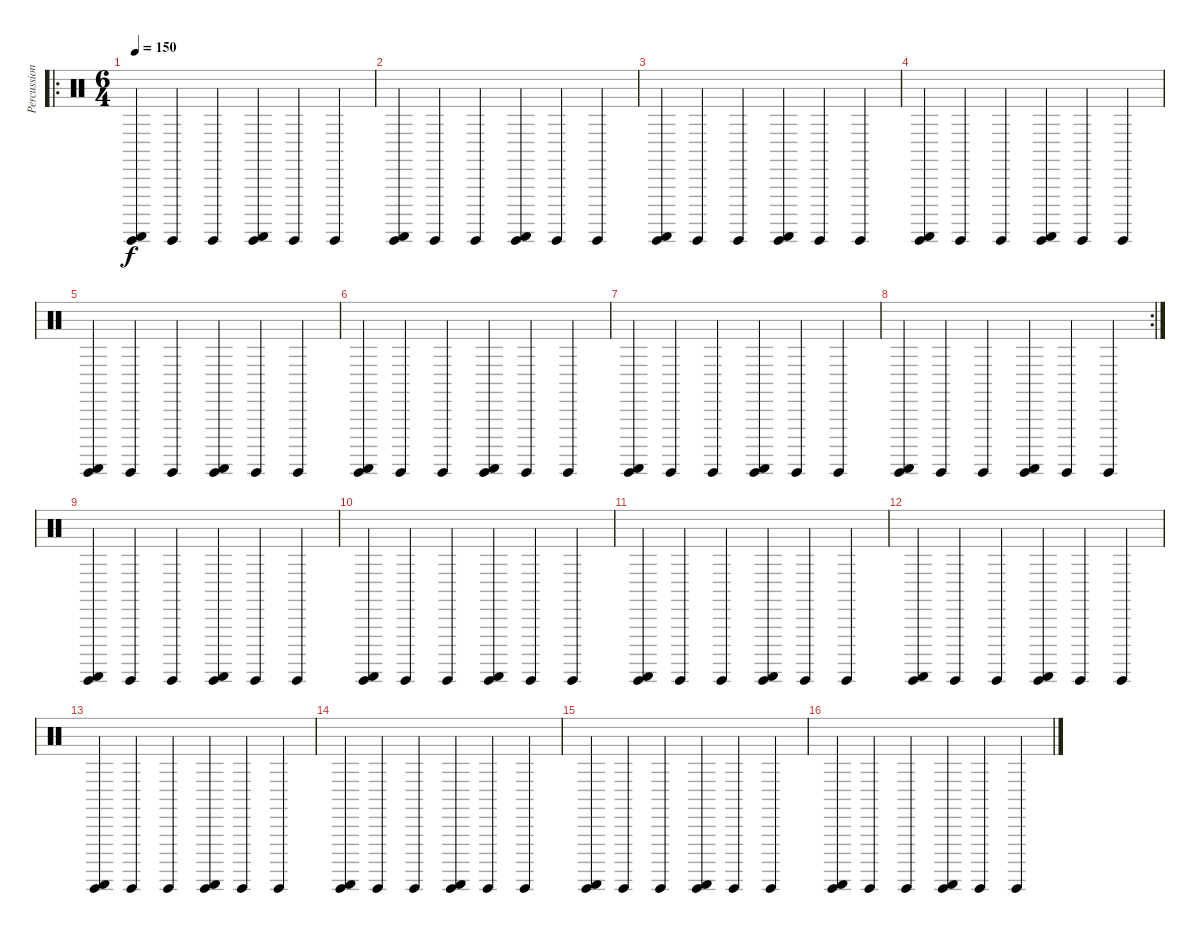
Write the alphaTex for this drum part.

\track ("Percussion" "Percussion") {instrument percussion}
\staff {score}
\articulation defaults
\ro
\ts (6 4)
\tempo 150
\clef neutral
\ks c
("Guiro (scrap-return)" "Guiro (hit)").4{dy f} "Guiro (hit)".4 "Guiro (hit)".4 ("Guiro (scrap-return)" "Guiro (hit)").4 "Guiro (hit)".4 "Guiro (hit)".4 |
("Guiro (scrap-return)" "Guiro (hit)").4 "Guiro (hit)".4 "Guiro (hit)".4 ("Guiro (scrap-return)" "Guiro (hit)").4 "Guiro (hit)".4 "Guiro (hit)".4 |
("Guiro (scrap-return)" "Guiro (hit)").4 "Guiro (hit)".4 "Guiro (hit)".4 ("Guiro (scrap-return)" "Guiro (hit)").4 "Guiro (hit)".4 "Guiro (hit)".4 |
("Guiro (scrap-return)" "Guiro (hit)").4 "Guiro (hit)".4 "Guiro (hit)".4 ("Guiro (scrap-return)" "Guiro (hit)").4 "Guiro (hit)".4 "Guiro (hit)".4 |
("Guiro (scrap-return)" "Guiro (hit)").4 "Guiro (hit)".4 "Guiro (hit)".4 ("Guiro (scrap-return)" "Guiro (hit)").4 "Guiro (hit)".4 "Guiro (hit)".4 |
("Guiro (scrap-return)" "Guiro (hit)").4 "Guiro (hit)".4 "Guiro (hit)".4 ("Guiro (scrap-return)" "Guiro (hit)").4 "Guiro (hit)".4 "Guiro (hit)".4 |
("Guiro (scrap-return)" "Guiro (hit)").4 "Guiro (hit)".4 "Guiro (hit)".4 ("Guiro (scrap-return)" "Guiro (hit)").4 "Guiro (hit)".4 "Guiro (hit)".4 |
\rc 2
("Guiro (scrap-return)" "Guiro (hit)").4 "Guiro (hit)".4 "Guiro (hit)".4 ("Guiro (scrap-return)" "Guiro (hit)").4 "Guiro (hit)".4 "Guiro (hit)".4 |
("Guiro (scrap-return)" "Guiro (hit)").4 "Guiro (hit)".4 "Guiro (hit)".4 ("Guiro (scrap-return)" "Guiro (hit)").4 "Guiro (hit)".4 "Guiro (hit)".4 |
("Guiro (scrap-return)" "Guiro (hit)").4 "Guiro (hit)".4 "Guiro (hit)".4 ("Guiro (scrap-return)" "Guiro (hit)").4 "Guiro (hit)".4 "Guiro (hit)".4 |
("Guiro (scrap-return)" "Guiro (hit)").4 "Guiro (hit)".4 "Guiro (hit)".4 ("Guiro (scrap-return)" "Guiro (hit)").4 "Guiro (hit)".4 "Guiro (hit)".4 |
("Guiro (scrap-return)" "Guiro (hit)").4 "Guiro (hit)".4 "Guiro (hit)".4 ("Guiro (scrap-return)" "Guiro (hit)").4 "Guiro (hit)".4 "Guiro (hit)".4 |
("Guiro (scrap-return)" "Guiro (hit)").4 "Guiro (hit)".4 "Guiro (hit)".4 ("Guiro (scrap-return)" "Guiro (hit)").4 "Guiro (hit)".4 "Guiro (hit)".4 |
("Guiro (scrap-return)" "Guiro (hit)").4 "Guiro (hit)".4 "Guiro (hit)".4 ("Guiro (scrap-return)" "Guiro (hit)").4 "Guiro (hit)".4 "Guiro (hit)".4 |
("Guiro (scrap-return)" "Guiro (hit)").4 "Guiro (hit)".4 "Guiro (hit)".4 ("Guiro (scrap-return)" "Guiro (hit)").4 "Guiro (hit)".4 "Guiro (hit)".4 |
("Guiro (scrap-return)" "Guiro (hit)").4 "Guiro (hit)".4 "Guiro (hit)".4 ("Guiro (scrap-return)" "Guiro (hit)").4 "Guiro (hit)".4 "Guiro (hit)".4
